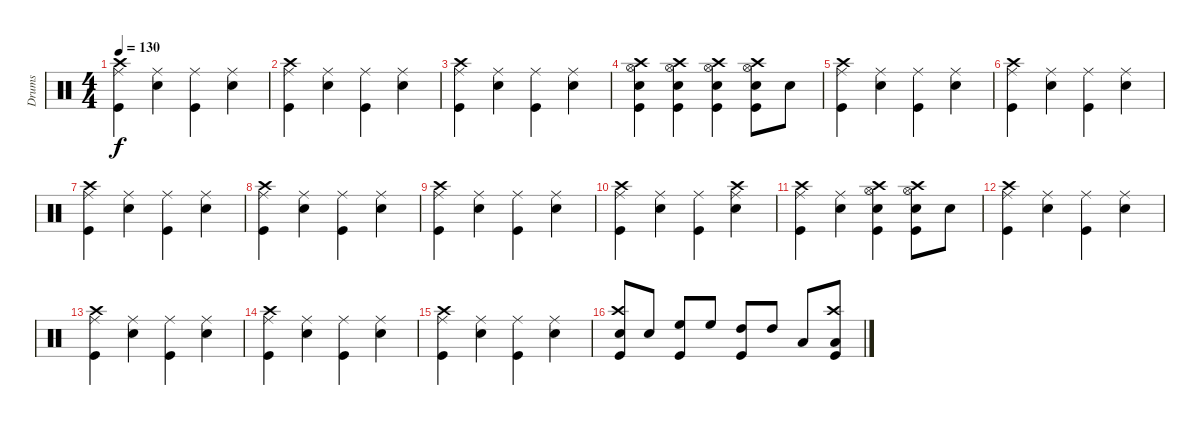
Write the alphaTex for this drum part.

\track ("Drums" "Drums") {instrument percussion}
\staff {score}
\articulation defaults
\ts (4 4)
\tempo 130
\clef neutral
\ks c
("Kick (hit)" "Crash high (hit)" "Ride (middle)").4{dy f} ("Snare (hit) 2" "Ride (middle)").4 ("Kick (hit)" "Ride (middle)").4 ("Snare (hit) 2" "Ride (middle)").4 |
("Kick (hit)" "Crash high (hit)" "Ride (middle)").4 ("Snare (hit) 2" "Ride (middle)").4 ("Kick (hit)" "Ride (middle)").4 ("Snare (hit) 2" "Ride (middle)").4 |
("Kick (hit)" "Crash high (hit)" "Ride (middle)").4 ("Snare (hit) 2" "Ride (middle)").4 ("Kick (hit)" "Ride (middle)").4 ("Snare (hit) 2" "Ride (middle)").4 |
("Kick (hit)" "Snare (hit) 2" "Crash high (hit)" "Hi-Hat (open)").4 ("Kick (hit)" "Snare (hit) 2" "Crash high (hit)" "Hi-Hat (open)").4 ("Kick (hit)" "Snare (hit) 2" "Crash high (hit)" "Hi-Hat (open)").4 ("Kick (hit)" "Snare (hit) 2" "Crash high (hit)" "Hi-Hat (open)").8 "Snare (hit) 2".8 |
("Kick (hit)" "Crash high (hit)" "Ride (middle)").4 ("Snare (hit) 2" "Ride (middle)").4 ("Kick (hit)" "Ride (middle)").4 ("Snare (hit) 2" "Ride (middle)").4 |
("Kick (hit)" "Crash high (hit)" "Ride (middle)").4 ("Snare (hit) 2" "Ride (middle)").4 ("Kick (hit)" "Ride (middle)").4 ("Snare (hit) 2" "Ride (middle)").4 |
("Kick (hit)" "Crash high (hit)" "Ride (middle)").4 ("Snare (hit) 2" "Ride (middle)").4 ("Kick (hit)" "Ride (middle)").4 ("Snare (hit) 2" "Ride (middle)").4 |
("Kick (hit)" "Crash high (hit)" "Ride (middle)").4 ("Snare (hit) 2" "Ride (middle)").4 ("Kick (hit)" "Ride (middle)").4 ("Snare (hit) 2" "Ride (middle)").4 |
("Kick (hit)" "Crash high (hit)" "Ride (middle)").4 ("Snare (hit) 2" "Ride (middle)").4 ("Kick (hit)" "Ride (middle)").4 ("Snare (hit) 2" "Ride (middle)").4 |
("Kick (hit)" "Crash high (hit)" "Ride (middle)").4 ("Snare (hit) 2" "Ride (middle)").4 ("Kick (hit)" "Ride (middle)").4 ("Snare (hit) 2" "Crash high (hit)" "Ride (middle)").4 |
("Kick (hit)" "Crash high (hit)" "Ride (middle)").4 ("Snare (hit) 2" "Ride (middle)").4 ("Kick (hit)" "Snare (hit) 2" "Crash high (hit)" "Hi-Hat (open)").4 ("Kick (hit)" "Snare (hit) 2" "Crash high (hit)" "Hi-Hat (open)").8 "Snare (hit) 2".8 |
("Kick (hit)" "Crash high (hit)" "Ride (middle)").4 ("Snare (hit) 2" "Ride (middle)").4 ("Kick (hit)" "Ride (middle)").4 ("Snare (hit) 2" "Ride (middle)").4 |
("Kick (hit)" "Crash high (hit)" "Ride (middle)").4 ("Snare (hit) 2" "Ride (middle)").4 ("Kick (hit)" "Ride (middle)").4 ("Snare (hit) 2" "Ride (middle)").4 |
("Kick (hit)" "Crash high (hit)" "Ride (middle)").4 ("Snare (hit) 2" "Ride (middle)").4 ("Kick (hit)" "Ride (middle)").4 ("Snare (hit) 2" "Ride (middle)").4 |
("Kick (hit)" "Crash high (hit)" "Ride (middle)").4 ("Snare (hit) 2" "Ride (middle)").4 ("Kick (hit)" "Ride (middle)").4 ("Snare (hit) 2" "Ride (middle)").4 |
("Kick (hit)" "Snare (hit) 2" "Crash high (hit)").8 "Snare (hit) 2".8 ("Kick (hit)" "High Floor Tom (hit)").8 "High Floor Tom (hit)".8 ("Kick (hit)" "High Tom (hit)").8 "High Tom (hit)".8 "Low Tom (hit)".8 ("Kick (hit)" "Crash high (hit)" "Low Tom (hit)").8
